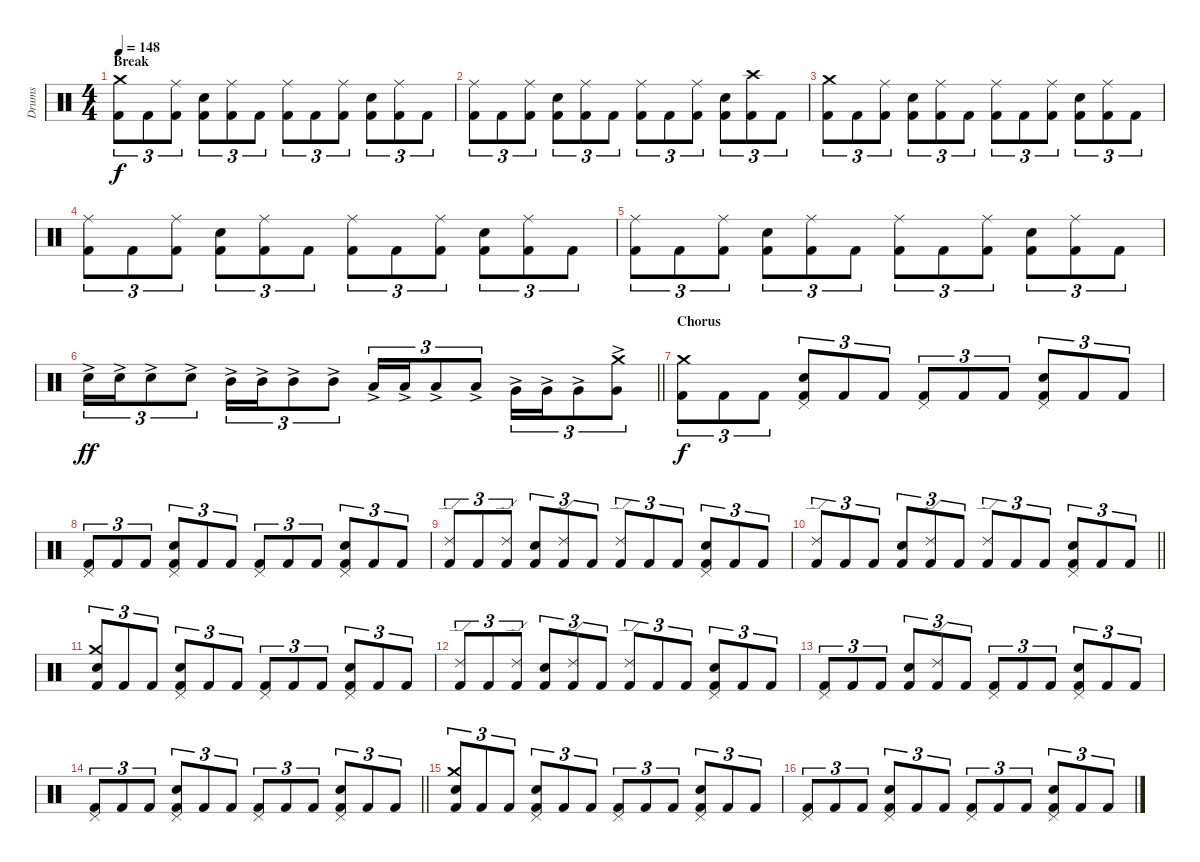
\track ("Drums" "Drums") {instrument percussion}
\staff {score}
\articulation defaults
\ts (4 4)
\section ("" "Break")
\tempo 148
\clef neutral
\ks c
("Kick (hit) 2" "Crash medium (hit)").8{tu (3 2) dy f} "Kick (hit) 2".8{tu (3 2)} ("Kick (hit) 2" "Ride (middle)").8{tu (3 2)} ("Kick (hit) 2" "Snare (hit) 2").8{tu (3 2)} ("Kick (hit) 2" "Ride (middle)").8{tu (3 2)} "Kick (hit) 2".8{tu (3 2)} ("Kick (hit) 2" "Ride (middle)").8{tu (3 2)} "Kick (hit) 2".8{tu (3 2)} ("Kick (hit) 2" "Ride (middle)").8{tu (3 2)} ("Kick (hit) 2" "Snare (hit) 2").8{tu (3 2)} ("Kick (hit) 2" "Ride (middle)").8{tu (3 2)} "Kick (hit) 2".8{tu (3 2)} |
("Kick (hit) 2" "Ride (middle)").8{tu (3 2)} "Kick (hit) 2".8{tu (3 2)} ("Kick (hit) 2" "Ride (middle)").8{tu (3 2)} ("Kick (hit) 2" "Snare (hit) 2").8{tu (3 2)} ("Kick (hit) 2" "Ride (middle)").8{tu (3 2)} "Kick (hit) 2".8{tu (3 2)} ("Kick (hit) 2" "Ride (middle)").8{tu (3 2)} "Kick (hit) 2".8{tu (3 2)} ("Kick (hit) 2" "Ride (middle)").8{tu (3 2)} ("Kick (hit) 2" "Snare (hit) 2").8{tu (3 2)} ("Kick (hit) 2" "Crash high (hit)").8{tu (3 2)} "Kick (hit) 2".8{tu (3 2)} |
("Kick (hit) 2" "Crash medium (hit)").8{tu (3 2)} "Kick (hit) 2".8{tu (3 2)} ("Kick (hit) 2" "Ride (middle)").8{tu (3 2)} ("Kick (hit) 2" "Snare (hit) 2").8{tu (3 2)} ("Kick (hit) 2" "Ride (middle)").8{tu (3 2)} "Kick (hit) 2".8{tu (3 2)} ("Kick (hit) 2" "Ride (middle)").8{tu (3 2)} "Kick (hit) 2".8{tu (3 2)} ("Kick (hit) 2" "Ride (middle)").8{tu (3 2)} ("Kick (hit) 2" "Snare (hit) 2").8{tu (3 2)} ("Kick (hit) 2" "Ride (middle)").8{tu (3 2)} "Kick (hit) 2".8{tu (3 2)} |
("Kick (hit) 2" "Ride (middle)").8{tu (3 2)} "Kick (hit) 2".8{tu (3 2)} ("Kick (hit) 2" "Ride (middle)").8{tu (3 2)} ("Kick (hit) 2" "Snare (hit) 2").8{tu (3 2)} ("Kick (hit) 2" "Ride (middle)").8{tu (3 2)} "Kick (hit) 2".8{tu (3 2)} ("Kick (hit) 2" "Ride (middle)").8{tu (3 2)} "Kick (hit) 2".8{tu (3 2)} ("Kick (hit) 2" "Ride (middle)").8{tu (3 2)} ("Kick (hit) 2" "Snare (hit) 2").8{tu (3 2)} ("Kick (hit) 2" "Ride (middle)").8{tu (3 2)} "Kick (hit) 2".8{tu (3 2)} |
("Kick (hit) 2" "Ride (middle)").8{tu (3 2)} "Kick (hit) 2".8{tu (3 2)} ("Kick (hit) 2" "Ride (middle)").8{tu (3 2)} ("Kick (hit) 2" "Snare (hit) 2").8{tu (3 2)} ("Kick (hit) 2" "Ride (middle)").8{tu (3 2)} "Kick (hit) 2".8{tu (3 2)} ("Kick (hit) 2" "Ride (middle)").8{tu (3 2)} "Kick (hit) 2".8{tu (3 2)} ("Kick (hit) 2" "Ride (middle)").8{tu (3 2)} ("Kick (hit) 2" "Snare (hit) 2").8{tu (3 2)} ("Kick (hit) 2" "Ride (middle)").8{tu (3 2)} "Kick (hit) 2".8{tu (3 2)} |
\barLineRight lightlight "Snare (hit) 2"{ac}.16{tu (3 2) dy ff} "Snare (hit) 2"{ac}.16{tu (3 2)} "Snare (hit) 2"{ac}.8{tu (3 2)} "Snare (hit) 2"{ac}.8{tu (3 2)} "Mid Tom (hit)"{ac}.16{tu (3 2)} "Mid Tom (hit)"{ac}.16{tu (3 2)} "Mid Tom (hit)"{ac}.8{tu (3 2)} "Mid Tom (hit)"{ac}.8{tu (3 2)} "Low Tom (hit)"{ac}.16{tu (3 2)} "Low Tom (hit)"{ac}.16{tu (3 2)} "Low Tom (hit)"{ac}.8{tu (3 2)} "Low Tom (hit)"{ac}.8{tu (3 2)} "Very Low Tom (hit)"{ac}.16{tu (3 2)} "Very Low Tom (hit)"{ac}.16{tu (3 2)} "Very Low Tom (hit)"{ac}.8{tu (3 2)}
("Very Low Tom (hit)"{ac} "Crash medium (hit)").8{tu (3 2)} |
\section ("" "Chorus")
("Kick (hit) 2" "Crash medium (hit)").8{tu (3 2) dy f} "Kick (hit) 2".8{tu (3 2)} "Kick (hit) 2".8{tu (3 2)} ("Kick (hit) 2" "Snare (hit) 2" "Pedal Hi-Hat (hit)").8{tu (3 2)} "Kick (hit) 2".8{tu (3 2)} "Kick (hit) 2".8{tu (3 2)} ("Kick (hit) 2" "Pedal Hi-Hat (hit)").8{tu (3 2)} "Kick (hit) 2".8{tu (3 2)} "Kick (hit) 2".8{tu (3 2)} ("Kick (hit) 2" "Snare (hit) 2" "Pedal Hi-Hat (hit)").8{tu (3 2)} "Kick (hit) 2".8{tu (3 2)} "Kick (hit) 2".8{tu (3 2)} |
("Kick (hit) 2" "Pedal Hi-Hat (hit)").8{tu (3 2)} "Kick (hit) 2".8{tu (3 2)} "Kick (hit) 2".8{tu (3 2)} ("Kick (hit) 2" "Snare (hit) 2" "Pedal Hi-Hat (hit)").8{tu (3 2)} "Kick (hit) 2".8{tu (3 2)} "Kick (hit) 2".8{tu (3 2)} ("Kick (hit) 2" "Pedal Hi-Hat (hit)").8{tu (3 2)} "Kick (hit) 2".8{tu (3 2)} "Kick (hit) 2".8{tu (3 2)} ("Kick (hit) 2" "Snare (hit) 2" "Pedal Hi-Hat (hit)").8{tu (3 2)} "Kick (hit) 2".8{tu (3 2)} "Kick (hit) 2".8{tu (3 2)} |
("Kick (hit) 2" "Ride (edge) 2").8{tu (3 2)} "Kick (hit) 2".8{tu (3 2)} ("Kick (hit) 2" "Ride (edge) 2").8{tu (3 2)} ("Kick (hit) 2" "Snare (hit) 2").8{tu (3 2)} ("Kick (hit) 2" "Ride (edge) 2").8{tu (3 2)} "Kick (hit) 2".8{tu (3 2)} ("Kick (hit) 2" "Ride (edge) 2").8{tu (3 2)} "Kick (hit) 2".8{tu (3 2)} "Kick (hit) 2".8{tu (3 2)} ("Kick (hit) 2" "Snare (hit) 2" "Pedal Hi-Hat (hit)").8{tu (3 2)} "Kick (hit) 2".8{tu (3 2)} "Kick (hit) 2".8{tu (3 2)} |
\barLineRight lightlight
("Kick (hit) 2" "Ride (edge) 2").8{tu (3 2)} "Kick (hit) 2".8{tu (3 2)} "Kick (hit) 2".8{tu (3 2)} ("Kick (hit) 2" "Snare (hit) 2").8{tu (3 2)} ("Kick (hit) 2" "Ride (edge) 2").8{tu (3 2)} "Kick (hit) 2".8{tu (3 2)} ("Kick (hit) 2" "Ride (edge) 2").8{tu (3 2)} "Kick (hit) 2".8{tu (3 2)} "Kick (hit) 2".8{tu (3 2)} ("Kick (hit) 2" "Snare (hit) 2" "Pedal Hi-Hat (hit)").8{tu (3 2)} "Kick (hit) 2".8{tu (3 2)} "Kick (hit) 2".8{tu (3 2)} |
\section ("" "")
("Kick (hit) 2" "Snare (hit) 2" "Crash medium (hit)").8{tu (3 2)} "Kick (hit) 2".8{tu (3 2)} "Kick (hit) 2".8{tu (3 2)} ("Kick (hit) 2" "Snare (hit) 2" "Pedal Hi-Hat (hit)").8{tu (3 2)} "Kick (hit) 2".8{tu (3 2)} "Kick (hit) 2".8{tu (3 2)} ("Kick (hit) 2" "Pedal Hi-Hat (hit)").8{tu (3 2)} "Kick (hit) 2".8{tu (3 2)} "Kick (hit) 2".8{tu (3 2)} ("Kick (hit) 2" "Snare (hit) 2" "Pedal Hi-Hat (hit)").8{tu (3 2)} "Kick (hit) 2".8{tu (3 2)} "Kick (hit) 2".8{tu (3 2)} |
("Kick (hit) 2" "Ride (edge) 2").8{tu (3 2)} "Kick (hit) 2".8{tu (3 2)} ("Kick (hit) 2" "Ride (edge) 2").8{tu (3 2)} ("Kick (hit) 2" "Snare (hit) 2").8{tu (3 2)} ("Kick (hit) 2" "Ride (edge) 2").8{tu (3 2)} "Kick (hit) 2".8{tu (3 2)} ("Kick (hit) 2" "Ride (edge) 2").8{tu (3 2)} "Kick (hit) 2".8{tu (3 2)} "Kick (hit) 2".8{tu (3 2)} ("Kick (hit) 2" "Snare (hit) 2" "Pedal Hi-Hat (hit)").8{tu (3 2)} "Kick (hit) 2".8{tu (3 2)} "Kick (hit) 2".8{tu (3 2)} |
("Kick (hit) 2" "Pedal Hi-Hat (hit)").8{tu (3 2)} "Kick (hit) 2".8{tu (3 2)} "Kick (hit) 2".8{tu (3 2)} ("Kick (hit) 2" "Snare (hit) 2").8{tu (3 2)} ("Kick (hit) 2" "Ride (edge) 2").8{tu (3 2)} "Kick (hit) 2".8{tu (3 2)} ("Kick (hit) 2" "Pedal Hi-Hat (hit)").8{tu (3 2)} "Kick (hit) 2".8{tu (3 2)} "Kick (hit) 2".8{tu (3 2)} ("Kick (hit) 2" "Snare (hit) 2" "Pedal Hi-Hat (hit)").8{tu (3 2)} "Kick (hit) 2".8{tu (3 2)} "Kick (hit) 2".8{tu (3 2)} |
\barLineRight lightlight
("Kick (hit) 2" "Pedal Hi-Hat (hit)").8{tu (3 2)} "Kick (hit) 2".8{tu (3 2)} "Kick (hit) 2".8{tu (3 2)} ("Kick (hit) 2" "Snare (hit) 2" "Pedal Hi-Hat (hit)").8{tu (3 2)} "Kick (hit) 2".8{tu (3 2)} "Kick (hit) 2".8{tu (3 2)} ("Kick (hit) 2" "Pedal Hi-Hat (hit)").8{tu (3 2)} "Kick (hit) 2".8{tu (3 2)} "Kick (hit) 2".8{tu (3 2)} ("Kick (hit) 2" "Snare (hit) 2" "Pedal Hi-Hat (hit)").8{tu (3 2)} "Kick (hit) 2".8{tu (3 2)} "Kick (hit) 2".8{tu (3 2)} |
\section ("" "")
("Kick (hit) 2" "Snare (hit) 2" "Crash medium (hit)").8{tu (3 2)} "Kick (hit) 2".8{tu (3 2)} "Kick (hit) 2".8{tu (3 2)} ("Kick (hit) 2" "Snare (hit) 2" "Pedal Hi-Hat (hit)").8{tu (3 2)} "Kick (hit) 2".8{tu (3 2)} "Kick (hit) 2".8{tu (3 2)} ("Kick (hit) 2" "Pedal Hi-Hat (hit)").8{tu (3 2)} "Kick (hit) 2".8{tu (3 2)} "Kick (hit) 2".8{tu (3 2)} ("Kick (hit) 2" "Snare (hit) 2" "Pedal Hi-Hat (hit)").8{tu (3 2)} "Kick (hit) 2".8{tu (3 2)} "Kick (hit) 2".8{tu (3 2)} |
("Kick (hit) 2" "Pedal Hi-Hat (hit)").8{tu (3 2)} "Kick (hit) 2".8{tu (3 2)} "Kick (hit) 2".8{tu (3 2)} ("Kick (hit) 2" "Snare (hit) 2" "Pedal Hi-Hat (hit)").8{tu (3 2)} "Kick (hit) 2".8{tu (3 2)} "Kick (hit) 2".8{tu (3 2)} ("Kick (hit) 2" "Pedal Hi-Hat (hit)").8{tu (3 2)} "Kick (hit) 2".8{tu (3 2)} "Kick (hit) 2".8{tu (3 2)} ("Kick (hit) 2" "Snare (hit) 2" "Pedal Hi-Hat (hit)").8{tu (3 2)} "Kick (hit) 2".8{tu (3 2)} "Kick (hit) 2".8{tu (3 2)}
